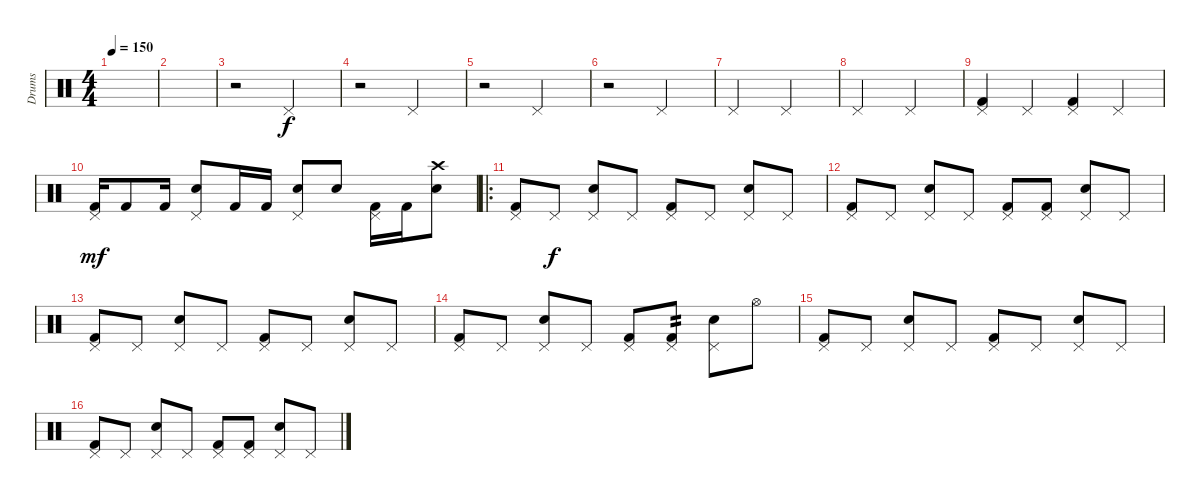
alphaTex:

\track ("Drums" "Drums") {instrument percussion}
\staff {score}
\articulation defaults
\ts (4 4)
\tempo 150
\clef neutral
\ks c
|
|
r.2 "Pedal Hi-Hat (hit)".2 |
r.2 "Pedal Hi-Hat (hit)".2 |
r.2 "Pedal Hi-Hat (hit)".2 |
r.2 "Pedal Hi-Hat (hit)".2 |
"Pedal Hi-Hat (hit)".2 "Pedal Hi-Hat (hit)".2 |
"Pedal Hi-Hat (hit)".2 "Pedal Hi-Hat (hit)".2 |
("Pedal Hi-Hat (hit)" "Kick (hit) 2").4 "Pedal Hi-Hat (hit)".4 ("Pedal Hi-Hat (hit)" "Kick (hit) 2").4 "Pedal Hi-Hat (hit)".4 |
("Pedal Hi-Hat (hit)" "Kick (hit) 2").16{dy mf} "Kick (hit) 2".8 "Kick (hit) 2".16 ("Pedal Hi-Hat (hit)" "Snare (hit) 2").8 "Kick (hit) 2".16 "Kick (hit) 2".16 ("Pedal Hi-Hat (hit)" "Snare (hit) 2").8 "Snare (hit) 2".8 ("Pedal Hi-Hat (hit)" "Kick (hit) 2").16 "Kick (hit) 2".16 ("Crash high (hit)" "Snare (hit) 2").8 |
\ro
("Pedal Hi-Hat (hit)" "Kick (hit) 2").8 "Pedal Hi-Hat (hit)".8{dy f} ("Pedal Hi-Hat (hit)" "Snare (hit) 2").8 "Pedal Hi-Hat (hit)".8 ("Pedal Hi-Hat (hit)" "Kick (hit) 2").8 "Pedal Hi-Hat (hit)".8 ("Pedal Hi-Hat (hit)" "Snare (hit) 2").8 "Pedal Hi-Hat (hit)".8 |
("Pedal Hi-Hat (hit)" "Kick (hit) 2").8 "Pedal Hi-Hat (hit)".8 ("Pedal Hi-Hat (hit)" "Snare (hit) 2").8 "Pedal Hi-Hat (hit)".8 ("Pedal Hi-Hat (hit)" "Kick (hit) 2").8 ("Pedal Hi-Hat (hit)" "Kick (hit) 2").8 ("Pedal Hi-Hat (hit)" "Snare (hit) 2").8 "Pedal Hi-Hat (hit)".8 |
("Pedal Hi-Hat (hit)" "Kick (hit) 2").8 "Pedal Hi-Hat (hit)".8 ("Pedal Hi-Hat (hit)" "Snare (hit) 2").8 "Pedal Hi-Hat (hit)".8 ("Pedal Hi-Hat (hit)" "Kick (hit) 2").8 "Pedal Hi-Hat (hit)".8 ("Pedal Hi-Hat (hit)" "Snare (hit) 2").8 "Pedal Hi-Hat (hit)".8 |
("Pedal Hi-Hat (hit)" "Kick (hit) 2").8 "Pedal Hi-Hat (hit)".8 ("Pedal Hi-Hat (hit)" "Snare (hit) 2").8 "Pedal Hi-Hat (hit)".8 ("Pedal Hi-Hat (hit)" "Kick (hit) 2").8 ("Pedal Hi-Hat (hit)" "Kick (hit) 2").8{tp 2} ("Pedal Hi-Hat (hit)" "Snare (hit) 2").8 "Hi-Hat (open)".8 |
("Pedal Hi-Hat (hit)" "Kick (hit) 2").8 "Pedal Hi-Hat (hit)".8 ("Pedal Hi-Hat (hit)" "Snare (hit) 2").8 "Pedal Hi-Hat (hit)".8 ("Pedal Hi-Hat (hit)" "Kick (hit) 2").8 "Pedal Hi-Hat (hit)".8 ("Pedal Hi-Hat (hit)" "Snare (hit) 2").8 "Pedal Hi-Hat (hit)".8 |
("Pedal Hi-Hat (hit)" "Kick (hit) 2").8 "Pedal Hi-Hat (hit)".8 ("Pedal Hi-Hat (hit)" "Snare (hit) 2").8 "Pedal Hi-Hat (hit)".8 ("Pedal Hi-Hat (hit)" "Kick (hit) 2").8 ("Pedal Hi-Hat (hit)" "Kick (hit) 2").8 ("Pedal Hi-Hat (hit)" "Snare (hit) 2").8 "Pedal Hi-Hat (hit)".8
